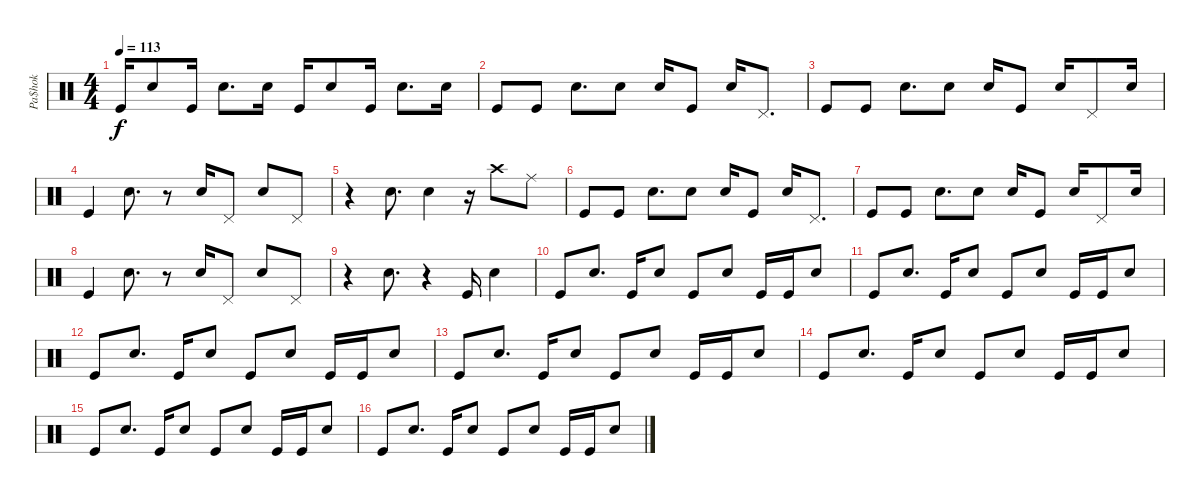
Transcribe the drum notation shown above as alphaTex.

\track ("Pa$hok" "Pa$hok") {instrument percussion}
\staff {score}
\articulation defaults
\ts (4 4)
\tempo 113
\clef neutral
\ks c "Kick (hit)".16{dy f} "Snare (hit) 2".8 "Kick (hit)".16 "Snare (hit) 2".8{d} "Snare (hit) 2".16 "Kick (hit)".16 "Snare (hit) 2".8 "Kick (hit)".16 "Snare (hit) 2".8{d} "Snare (hit) 2".16
|
"Kick (hit)".8 "Kick (hit)".8 "Snare (hit) 2".8{d} "Snare (hit) 2".8 "Snare (hit) 2".16 "Kick (hit)".8 "Snare (hit) 2".16 "Pedal Hi-Hat (hit)".8{d} |
"Kick (hit)".8 "Kick (hit)".8 "Snare (hit) 2".8{d} "Snare (hit) 2".8 "Snare (hit) 2".16 "Kick (hit)".8 "Snare (hit) 2".16 "Pedal Hi-Hat (hit)".8 "Snare (hit) 2".16 |
"Kick (hit)".4 "Snare (hit) 2".8{d} r.8 "Snare (hit) 2".16 "Pedal Hi-Hat (hit)".8 "Snare (hit) 2".8 "Pedal Hi-Hat (hit)".8 |
r.4 "Snare (hit) 2".8{d} "Snare (hit) 2".4 r.16 "Crash high (hit)".8 "Ride (middle)".8 |
"Kick (hit)".8 "Kick (hit)".8 "Snare (hit) 2".8{d} "Snare (hit) 2".8 "Snare (hit) 2".16 "Kick (hit)".8 "Snare (hit) 2".16 "Pedal Hi-Hat (hit)".8{d} |
"Kick (hit)".8 "Kick (hit)".8 "Snare (hit) 2".8{d} "Snare (hit) 2".8 "Snare (hit) 2".16 "Kick (hit)".8 "Snare (hit) 2".16 "Pedal Hi-Hat (hit)".8 "Snare (hit) 2".16 |
"Kick (hit)".4 "Snare (hit) 2".8{d} r.8 "Snare (hit) 2".16 "Pedal Hi-Hat (hit)".8 "Snare (hit) 2".8 "Pedal Hi-Hat (hit)".8 |
r.4 "Snare (hit) 2".8{d} r.4 "Kick (hit)".16 "Snare (hit) 2".4 |
"Kick (hit)".8 "Snare (hit) 2".8{d} "Kick (hit)".16 "Snare (hit) 2".8 "Kick (hit)".8 "Snare (hit) 2".8 "Kick (hit)".16 "Kick (hit)".16 "Snare (hit) 2".8 |
"Kick (hit)".8 "Snare (hit) 2".8{d} "Kick (hit)".16 "Snare (hit) 2".8 "Kick (hit)".8 "Snare (hit) 2".8 "Kick (hit)".16 "Kick (hit)".16 "Snare (hit) 2".8 |
"Kick (hit)".8 "Snare (hit) 2".8{d} "Kick (hit)".16 "Snare (hit) 2".8 "Kick (hit)".8 "Snare (hit) 2".8 "Kick (hit)".16 "Kick (hit)".16 "Snare (hit) 2".8 |
"Kick (hit)".8 "Snare (hit) 2".8{d} "Kick (hit)".16 "Snare (hit) 2".8 "Kick (hit)".8 "Snare (hit) 2".8 "Kick (hit)".16 "Kick (hit)".16 "Snare (hit) 2".8 |
"Kick (hit)".8 "Snare (hit) 2".8{d} "Kick (hit)".16 "Snare (hit) 2".8 "Kick (hit)".8 "Snare (hit) 2".8 "Kick (hit)".16 "Kick (hit)".16 "Snare (hit) 2".8 |
"Kick (hit)".8 "Snare (hit) 2".8{d} "Kick (hit)".16 "Snare (hit) 2".8 "Kick (hit)".8 "Snare (hit) 2".8 "Kick (hit)".16 "Kick (hit)".16 "Snare (hit) 2".8 |
"Kick (hit)".8 "Snare (hit) 2".8{d} "Kick (hit)".16 "Snare (hit) 2".8 "Kick (hit)".8 "Snare (hit) 2".8 "Kick (hit)".16 "Kick (hit)".16 "Snare (hit) 2".8
